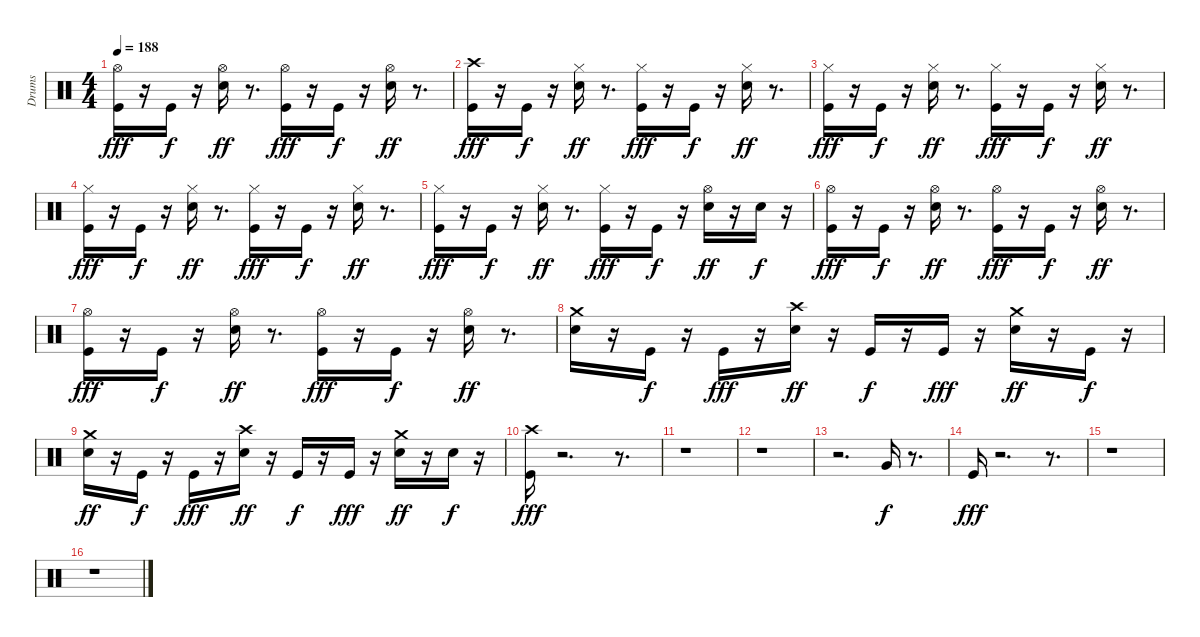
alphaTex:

\track ("Drums" "Drums") {instrument percussion}
\staff {score}
\articulation defaults
\ts (4 4)
\tempo 188
\clef neutral
\ks c
("Hi-Hat (open)" "Kick (hit)").16{dy fff} r.16 "Kick (hit)".16{dy f} r.16 ("Hi-Hat (open)" "Electric Snare (hit)").16{dy ff} r.8{d} ("Hi-Hat (open)" "Kick (hit)").16{dy fff} r.16 "Kick (hit)".16{dy f} r.16 ("Electric Snare (hit)" "Hi-Hat (open)").16{dy ff} r.8{d} |
("Crash high (hit)" "Kick (hit)").16{dy fff} r.16 "Kick (hit)".16{dy f} r.16 ("Electric Snare (hit)" "Hi-Hat (closed)").16{dy ff} r.8{d} ("Hi-Hat (closed)" "Kick (hit)").16{dy fff} r.16 "Kick (hit)".16{dy f} r.16 ("Electric Snare (hit)" "Hi-Hat (closed)").16{dy ff} r.8{d} |
("Hi-Hat (closed)" "Kick (hit)").16{dy fff} r.16 "Kick (hit)".16{dy f} r.16 ("Electric Snare (hit)" "Hi-Hat (closed)").16{dy ff} r.8{d} ("Hi-Hat (closed)" "Kick (hit)").16{dy fff} r.16 "Kick (hit)".16{dy f} r.16 ("Electric Snare (hit)" "Hi-Hat (closed)").16{dy ff} r.8{d} |
("Hi-Hat (closed)" "Kick (hit)").16{dy fff} r.16 "Kick (hit)".16{dy f} r.16 ("Electric Snare (hit)" "Hi-Hat (closed)").16{dy ff} r.8{d} ("Hi-Hat (closed)" "Kick (hit)").16{dy fff} r.16 "Kick (hit)".16{dy f} r.16 ("Electric Snare (hit)" "Hi-Hat (closed)").16{dy ff} r.8{d} |
("Hi-Hat (closed)" "Kick (hit)").16{dy fff} r.16 "Kick (hit)".16{dy f} r.16 ("Electric Snare (hit)" "Hi-Hat (closed)").16{dy ff} r.8{d} ("Hi-Hat (closed)" "Kick (hit)").16{dy fff} r.16 "Kick (hit)".16{dy f} r.16 ("Electric Snare (hit)" "Hi-Hat (open)").16{dy ff} r.16 "Electric Snare (hit)".16{dy f} r.16 |
("Hi-Hat (open)" "Kick (hit)").16{dy fff} r.16 "Kick (hit)".16{dy f} r.16 ("Hi-Hat (open)" "Electric Snare (hit)").16{dy ff} r.8{d} ("Hi-Hat (open)" "Kick (hit)").16{dy fff} r.16 "Kick (hit)".16{dy f} r.16 ("Hi-Hat (open)" "Electric Snare (hit)").16{dy ff} r.8{d} |
("Hi-Hat (open)" "Kick (hit)").16{dy fff} r.16 "Kick (hit)".16{dy f} r.16 ("Hi-Hat (open)" "Electric Snare (hit)").16{dy ff} r.8{d} ("Hi-Hat (open)" "Kick (hit)").16{dy fff} r.16 "Kick (hit)".16{dy f} r.16 ("Hi-Hat (open)" "Electric Snare (hit)").16{dy ff} r.8{d} |
("Electric Snare (hit)" "Crash medium (hit)").16 r.16 "Kick (hit)".16{dy f} r.16 "Kick (hit)".16{dy fff} r.16 ("Crash high (hit)" "Electric Snare (hit)").16{dy ff} r.16 "Kick (hit)".16{dy f} r.16 "Kick (hit)".16{dy fff} r.16 ("Crash medium (hit)" "Electric Snare (hit)").16{dy ff} r.16 "Kick (hit)".16{dy f} r.16 |
("Electric Snare (hit)" "Crash medium (hit)").16{dy ff} r.16 "Kick (hit)".16{dy f} r.16 "Kick (hit)".16{dy fff} r.16 ("Crash high (hit)" "Electric Snare (hit)").16{dy ff} r.16 "Kick (hit)".16{dy f} r.16 "Kick (hit)".16{dy fff} r.16 ("Crash medium (hit)" "Electric Snare (hit)").16{dy ff} r.16 "Electric Snare (hit)".16{dy f} r.16 |
("Crash high (hit)" "Kick (hit)").16{dy fff} r.2{d} r.8{d} |
r.1 |
r.1 |
r.2{d} "Very Low Tom (hit)".16{dy f} r.8{d} |
"Kick (hit)".16{dy fff} r.2{d} r.8{d} |
r.1 |
r.1
